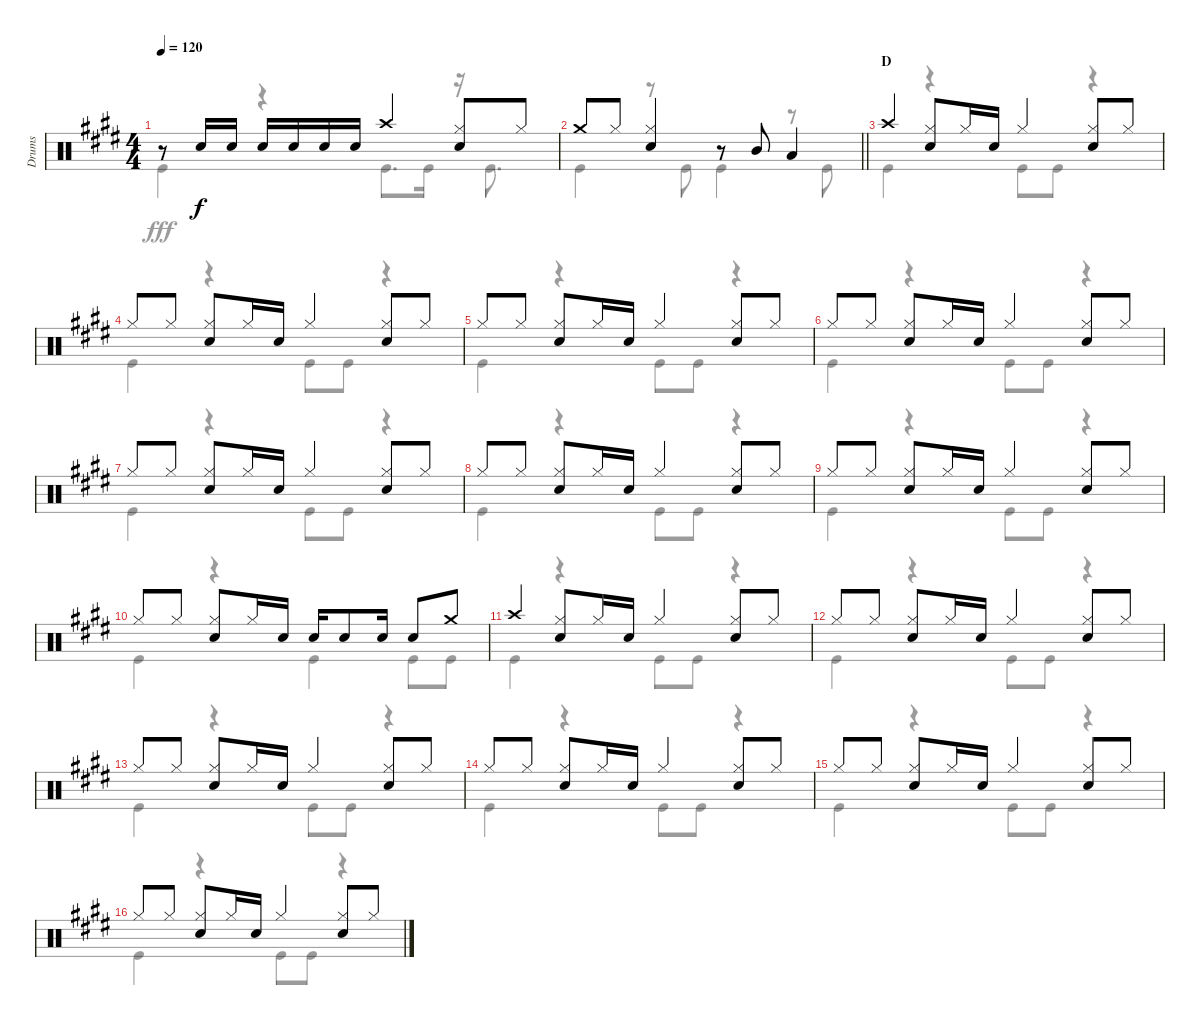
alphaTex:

\track ("Drums" "Drums") {instrument percussion}
\staff {score}
\articulation defaults
\voice
\ts (4 4)
\tempo 120
\clef neutral
\ks e
r.8{dy f} "Snare (hit) 2".16 "Snare (hit) 2".16 "Snare (hit) 2".16 "Snare (hit) 2".16 "Snare (hit) 2".16 "Snare (hit) 2".16 "Crash high (hit)".4 ("Hi-Hat (closed)" "Snare (hit) 2").8 "Hi-Hat (closed)".8 |
\barLineRight lightlight "Crash medium (hit)".8 "Hi-Hat (closed)".8
("Hi-Hat (closed)" "Snare (hit) 2").4 r.8 "Mid Tom (hit)".8 "Low Tom (hit)".4 |
\section ("" "D")
"Crash high (hit)".4 ("Hi-Hat (closed)" "Snare (hit) 2").8 "Hi-Hat (closed)".16 "Snare (hit) 2".16 "Hi-Hat (closed)".4 ("Hi-Hat (closed)" "Snare (hit) 2").8 "Hi-Hat (closed)".8 |
"Hi-Hat (closed)".8 "Hi-Hat (closed)".8 ("Hi-Hat (closed)" "Snare (hit) 2").8 "Hi-Hat (closed)".16 "Snare (hit) 2".16 "Hi-Hat (closed)".4 ("Hi-Hat (closed)" "Snare (hit) 2").8 "Hi-Hat (closed)".8 |
"Hi-Hat (closed)".8 "Hi-Hat (closed)".8 ("Hi-Hat (closed)" "Snare (hit) 2").8 "Hi-Hat (closed)".16 "Snare (hit) 2".16 "Hi-Hat (closed)".4 ("Hi-Hat (closed)" "Snare (hit) 2").8 "Hi-Hat (closed)".8 |
"Hi-Hat (closed)".8 "Hi-Hat (closed)".8 ("Hi-Hat (closed)" "Snare (hit) 2").8 "Hi-Hat (closed)".16 "Snare (hit) 2".16 "Hi-Hat (closed)".4 ("Hi-Hat (closed)" "Snare (hit) 2").8 "Hi-Hat (closed)".8 |
"Hi-Hat (closed)".8 "Hi-Hat (closed)".8 ("Hi-Hat (closed)" "Snare (hit) 2").8 "Hi-Hat (closed)".16 "Snare (hit) 2".16 "Hi-Hat (closed)".4 ("Hi-Hat (closed)" "Snare (hit) 2").8 "Hi-Hat (closed)".8 |
"Hi-Hat (closed)".8 "Hi-Hat (closed)".8 ("Hi-Hat (closed)" "Snare (hit) 2").8 "Hi-Hat (closed)".16 "Snare (hit) 2".16 "Hi-Hat (closed)".4 ("Hi-Hat (closed)" "Snare (hit) 2").8 "Hi-Hat (closed)".8 |
"Hi-Hat (closed)".8 "Hi-Hat (closed)".8 ("Hi-Hat (closed)" "Snare (hit) 2").8 "Hi-Hat (closed)".16 "Snare (hit) 2".16 "Hi-Hat (closed)".4 ("Hi-Hat (closed)" "Snare (hit) 2").8 "Hi-Hat (closed)".8 |
"Hi-Hat (closed)".8 "Hi-Hat (closed)".8 ("Hi-Hat (closed)" "Snare (hit) 2").8 "Hi-Hat (closed)".16 "Snare (hit) 2".16 "Snare (hit) 2".16 "Snare (hit) 2".8 "Snare (hit) 2".16 "Snare (hit) 2".8 "Crash medium (hit)".8 |
"Crash high (hit)".4 ("Hi-Hat (closed)" "Snare (hit) 2").8 "Hi-Hat (closed)".16 "Snare (hit) 2".16 "Hi-Hat (closed)".4 ("Hi-Hat (closed)" "Snare (hit) 2").8 "Hi-Hat (closed)".8 |
"Hi-Hat (closed)".8 "Hi-Hat (closed)".8 ("Hi-Hat (closed)" "Snare (hit) 2").8 "Hi-Hat (closed)".16 "Snare (hit) 2".16 "Hi-Hat (closed)".4 ("Hi-Hat (closed)" "Snare (hit) 2").8 "Hi-Hat (closed)".8 |
"Hi-Hat (closed)".8 "Hi-Hat (closed)".8 ("Hi-Hat (closed)" "Snare (hit) 2").8 "Hi-Hat (closed)".16 "Snare (hit) 2".16 "Hi-Hat (closed)".4 ("Hi-Hat (closed)" "Snare (hit) 2").8 "Hi-Hat (closed)".8 |
"Hi-Hat (closed)".8 "Hi-Hat (closed)".8 ("Hi-Hat (closed)" "Snare (hit) 2").8 "Hi-Hat (closed)".16 "Snare (hit) 2".16 "Hi-Hat (closed)".4 ("Hi-Hat (closed)" "Snare (hit) 2").8 "Hi-Hat (closed)".8 |
"Hi-Hat (closed)".8 "Hi-Hat (closed)".8 ("Hi-Hat (closed)" "Snare (hit) 2").8 "Hi-Hat (closed)".16 "Snare (hit) 2".16 "Hi-Hat (closed)".4 ("Hi-Hat (closed)" "Snare (hit) 2").8 "Hi-Hat (closed)".8 |
"Hi-Hat (closed)".8 "Hi-Hat (closed)".8 ("Hi-Hat (closed)" "Snare (hit) 2").8 "Hi-Hat (closed)".16 "Snare (hit) 2".16 "Hi-Hat (closed)".4 ("Hi-Hat (closed)" "Snare (hit) 2").8 "Hi-Hat (closed)".8
\voice
\clef neutral
\ottava regular
\simile none
\ks e "Kick (hit)".4{dy fff}
r.4 "Kick (hit)".8{d} "Kick (hit)".16 r.16 "Kick (hit)".8{d} |
\barLineRight lightlight "Kick (hit)".4
r.8 "Kick (hit)".8 "Kick (hit)".4 r.8 "Kick (hit)".8 |
"Kick (hit)".4 r.4 "Kick (hit)".8 "Kick (hit)".8 r.4 |
"Kick (hit)".4 r.4 "Kick (hit)".8 "Kick (hit)".8 r.4 |
"Kick (hit)".4 r.4 "Kick (hit)".8 "Kick (hit)".8 r.4 |
"Kick (hit)".4 r.4 "Kick (hit)".8 "Kick (hit)".8 r.4 |
"Kick (hit)".4 r.4 "Kick (hit)".8 "Kick (hit)".8 r.4 |
"Kick (hit)".4 r.4 "Kick (hit)".8 "Kick (hit)".8 r.4 |
"Kick (hit)".4 r.4 "Kick (hit)".8 "Kick (hit)".8 r.4 |
"Kick (hit)".4 r.4 "Kick (hit)".4 "Kick (hit)".8 "Kick (hit)".8 |
"Kick (hit)".4 r.4 "Kick (hit)".8 "Kick (hit)".8 r.4 |
"Kick (hit)".4 r.4 "Kick (hit)".8 "Kick (hit)".8 r.4 |
"Kick (hit)".4 r.4 "Kick (hit)".8 "Kick (hit)".8 r.4 |
"Kick (hit)".4 r.4 "Kick (hit)".8 "Kick (hit)".8 r.4 |
"Kick (hit)".4 r.4 "Kick (hit)".8 "Kick (hit)".8 r.4 |
"Kick (hit)".4 r.4 "Kick (hit)".8 "Kick (hit)".8 r.4
